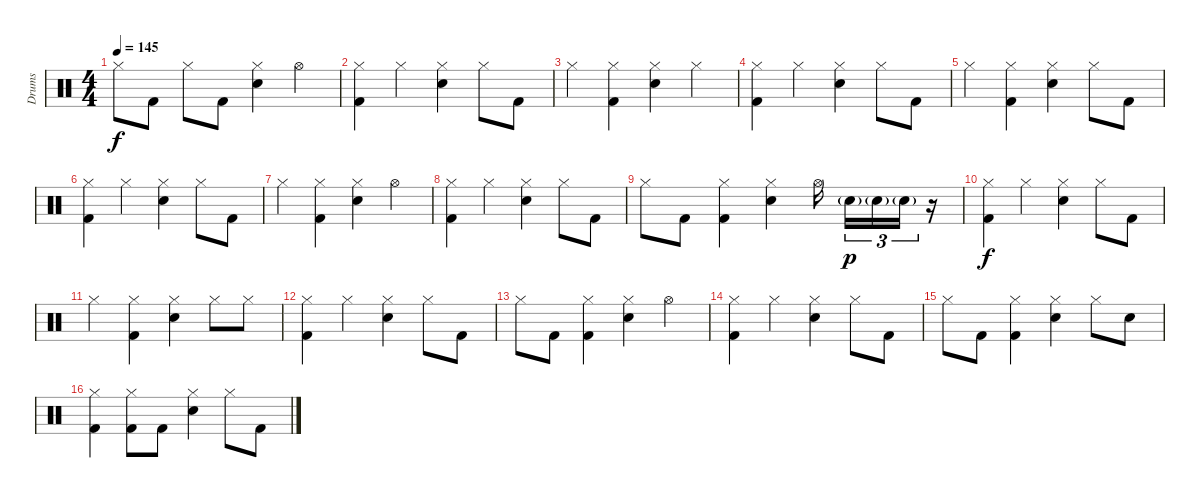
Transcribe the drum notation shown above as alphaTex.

\track ("Drums" "Drums") {instrument percussion}
\staff {score}
\articulation defaults
\ts (4 4)
\tempo 145
\clef neutral
\ks c "Hi-Hat (closed)".8{dy f} "Kick (hit) 2".8 "Hi-Hat (closed)".8 "Kick (hit) 2".8
("Hi-Hat (closed)" "Electric Snare (hit)").4 "Hi-Hat (open)".4 |
("Hi-Hat (closed)" "Kick (hit) 2").4 "Hi-Hat (closed)".4 ("Hi-Hat (closed)" "Electric Snare (hit)").4 "Hi-Hat (closed)".8 "Kick (hit) 2".8 |
"Hi-Hat (closed)".4 ("Hi-Hat (closed)" "Kick (hit) 2").4 ("Hi-Hat (closed)" "Electric Snare (hit)").4 "Hi-Hat (closed)".4 |
("Hi-Hat (closed)" "Kick (hit) 2").4 "Hi-Hat (closed)".4 ("Hi-Hat (closed)" "Electric Snare (hit)").4 "Hi-Hat (closed)".8 "Kick (hit) 2".8 |
"Hi-Hat (closed)".4 ("Hi-Hat (closed)" "Kick (hit) 2").4 ("Hi-Hat (closed)" "Electric Snare (hit)").4 "Hi-Hat (closed)".8 "Kick (hit) 2".8 |
("Hi-Hat (closed)" "Kick (hit) 2").4 "Hi-Hat (closed)".4 ("Hi-Hat (closed)" "Electric Snare (hit)").4 "Hi-Hat (closed)".8 "Kick (hit) 2".8 |
"Hi-Hat (closed)".4 ("Hi-Hat (closed)" "Kick (hit) 2").4 ("Hi-Hat (closed)" "Electric Snare (hit)").4 "Hi-Hat (open)".4 |
("Hi-Hat (closed)" "Kick (hit) 2").4 "Hi-Hat (closed)".4 ("Hi-Hat (closed)" "Electric Snare (hit)").4 "Hi-Hat (closed)".8 "Kick (hit) 2".8 |
"Hi-Hat (closed)".8 "Kick (hit) 2".8 ("Hi-Hat (closed)" "Kick (hit) 2").4 ("Hi-Hat (closed)" "Electric Snare (hit)").4 "Hi-Hat (open)".16 "Electric Snare (hit)"{g}.16{tu (3 2) dy p} "Electric Snare (hit)"{g}.16{tu (3 2)} "Electric Snare (hit)"{g}.16{tu (3 2)} r.16 |
("Hi-Hat (closed)" "Kick (hit) 2").4{dy f} "Hi-Hat (closed)".4 ("Hi-Hat (closed)" "Electric Snare (hit)").4 "Hi-Hat (closed)".8 "Kick (hit) 2".8 |
"Hi-Hat (closed)".4 ("Hi-Hat (closed)" "Kick (hit) 2").4 ("Hi-Hat (closed)" "Electric Snare (hit)").4 "Hi-Hat (closed)".8 "Hi-Hat (closed)".8 |
("Hi-Hat (closed)" "Kick (hit) 2").4 "Hi-Hat (closed)".4 ("Hi-Hat (closed)" "Electric Snare (hit)").4 "Hi-Hat (closed)".8 "Kick (hit) 2".8 |
"Hi-Hat (closed)".8 "Kick (hit) 2".8 ("Hi-Hat (closed)" "Kick (hit) 2").4 ("Hi-Hat (closed)" "Electric Snare (hit)").4 "Hi-Hat (open)".4 |
("Hi-Hat (closed)" "Kick (hit) 2").4 "Hi-Hat (closed)".4 ("Hi-Hat (closed)" "Electric Snare (hit)").4 "Hi-Hat (closed)".8 "Kick (hit) 2".8 |
"Hi-Hat (closed)".8 "Kick (hit) 2".8 ("Hi-Hat (closed)" "Kick (hit) 2").4 ("Hi-Hat (closed)" "Electric Snare (hit)").4 "Hi-Hat (closed)".8 "Electric Snare (hit)".8 |
("Hi-Hat (closed)" "Kick (hit) 2").4 ("Hi-Hat (closed)" "Kick (hit) 2").8 "Kick (hit) 2".8 ("Hi-Hat (closed)" "Electric Snare (hit)").4 "Hi-Hat (closed)".8 "Kick (hit) 2".8
